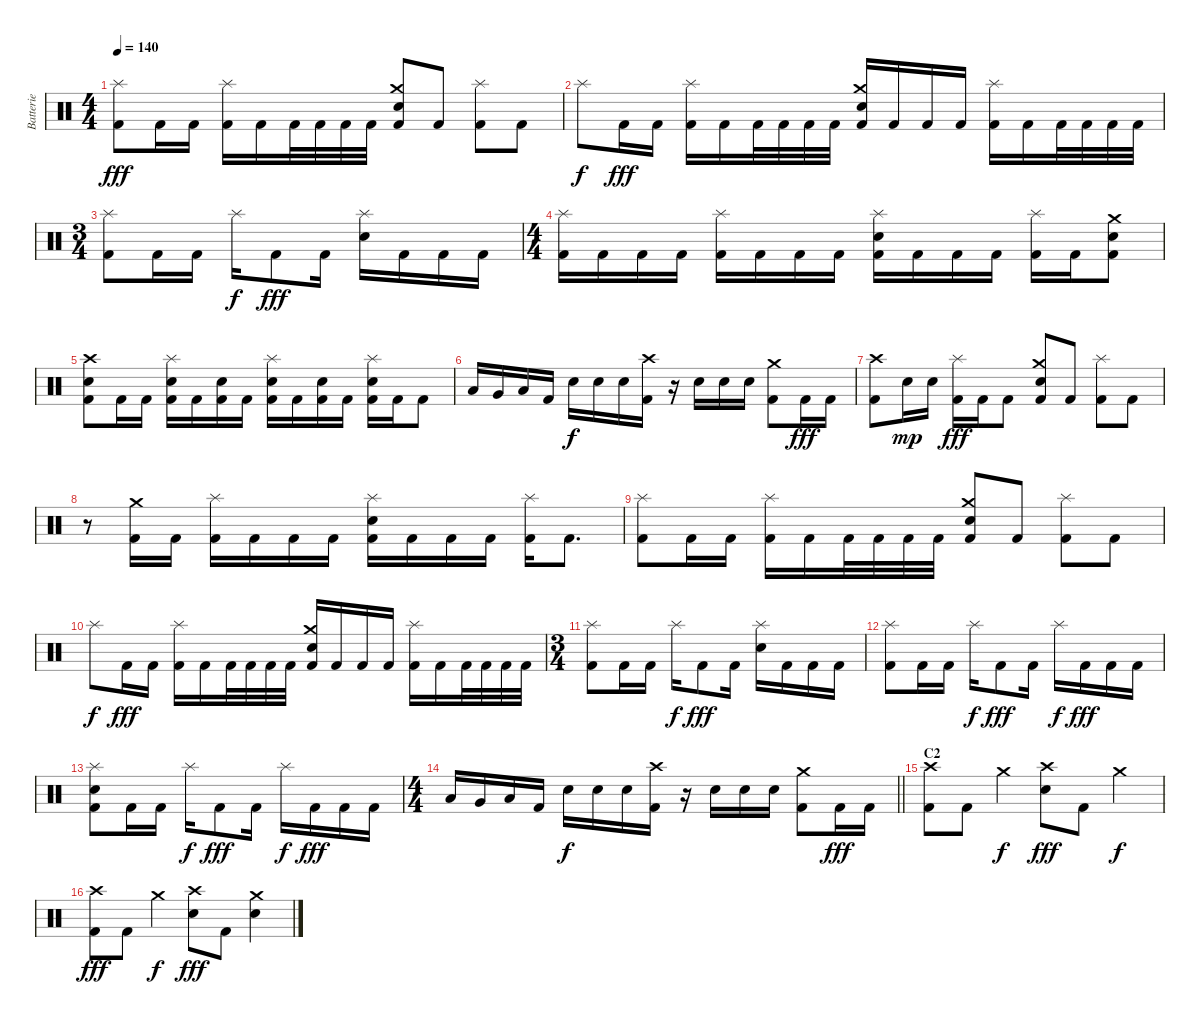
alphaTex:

\track ("Batterie" "Batterie") {instrument percussion}
\staff {score}
\articulation defaults
\ts (4 4)
\tempo 140
\clef neutral
\ks c
("Splash (hit)" "Kick (hit) 2").8{dy fff} "Kick (hit) 2".16 "Kick (hit) 2".16 ("Splash (hit)" "Kick (hit) 2").16 "Kick (hit) 2".16 "Kick (hit) 2".32 "Kick (hit) 2".32 "Kick (hit) 2".32 "Kick (hit) 2".32 ("Crash medium (hit)" "Electric Snare (hit)" "Kick (hit) 2").8 "Kick (hit) 2".8 ("Splash (hit)" "Kick (hit) 2").8 "Kick (hit) 2".8 |
"Splash (hit)".8{dy f} "Kick (hit) 2".16{dy fff} "Kick (hit) 2".16 ("Splash (hit)" "Kick (hit) 2").16 "Kick (hit) 2".16 "Kick (hit) 2".32 "Kick (hit) 2".32 "Kick (hit) 2".32 "Kick (hit) 2".32 ("Crash medium (hit)" "Electric Snare (hit)" "Kick (hit) 2").16 "Kick (hit) 2".16 "Kick (hit) 2".16 "Kick (hit) 2".16 ("Splash (hit)" "Kick (hit) 2").16 "Kick (hit) 2".16 "Kick (hit) 2".32 "Kick (hit) 2".32 "Kick (hit) 2".32 "Kick (hit) 2".32 |
\ts (3 4)
("Splash (hit)" "Kick (hit) 2").8 "Kick (hit) 2".16 "Kick (hit) 2".16 "Splash (hit)".16{dy f} "Kick (hit) 2".8{dy fff} "Kick (hit) 2".16 ("Splash (hit)" "Electric Snare (hit)").16 "Kick (hit) 2".16 "Kick (hit) 2".16 "Kick (hit) 2".16 |
\ts (4 4)
("Splash (hit)" "Kick (hit) 2").16 "Kick (hit) 2".16 "Kick (hit) 2".16 "Kick (hit) 2".16 ("Splash (hit)" "Kick (hit) 2").16 "Kick (hit) 2".16 "Kick (hit) 2".16 "Kick (hit) 2".16 ("Splash (hit)" "Electric Snare (hit)" "Kick (hit) 2").16 "Kick (hit) 2".16 "Kick (hit) 2".16 "Kick (hit) 2".16 ("Splash (hit)" "Kick (hit) 2").16 "Kick (hit) 2".16 ("Crash medium (hit)" "Electric Snare (hit)" "Kick (hit) 2").8 |
("Crash high (hit)" "Electric Snare (hit)" "Kick (hit) 2").8 "Kick (hit) 2".16 "Kick (hit) 2".16 ("Splash (hit)" "Electric Snare (hit)" "Kick (hit) 2").16 "Kick (hit) 2".16 ("Electric Snare (hit)" "Kick (hit) 2").16 "Kick (hit) 2".16 ("Splash (hit)" "Electric Snare (hit)" "Kick (hit) 2").16 "Kick (hit) 2".16 ("Electric Snare (hit)" "Kick (hit) 2").16 "Kick (hit) 2".16 ("Splash (hit)" "Electric Snare (hit)" "Kick (hit) 2").16 "Kick (hit) 2".16 "Kick (hit) 2".8 |
"Low Tom (hit)".16 "Very Low Tom (hit)".16 "Low Floor Tom (hit)".16 "Kick (hit) 2".16 "Electric Snare (hit)".16{dy f} "Electric Snare (hit)".16 "Electric Snare (hit)".16 ("Crash high (hit)" "Kick (hit) 2").16 r.16 "Electric Snare (hit)".16 "Electric Snare (hit)".16 "Electric Snare (hit)".16 ("Crash medium (hit)" "Kick (hit) 2").8 "Kick (hit) 2".16{dy fff} "Kick (hit) 2".16 |
("Crash high (hit)" "Kick (hit) 2").8 "Electric Snare (hit)".16{dy mp} "Electric Snare (hit)".16 ("Splash (hit)" "Kick (hit) 2").16{dy fff} "Kick (hit) 2".16 "Kick (hit) 2".8 ("Crash medium (hit)" "Electric Snare (hit)" "Kick (hit) 2").8 "Kick (hit) 2".8 ("Splash (hit)" "Kick (hit) 2").8 "Kick (hit) 2".8 |
r.8 ("Crash medium (hit)" "Kick (hit) 2").16 "Kick (hit) 2".16 ("Splash (hit)" "Kick (hit) 2").16 "Kick (hit) 2".16 "Kick (hit) 2".16 "Kick (hit) 2".16 ("Splash (hit)" "Electric Snare (hit)" "Kick (hit) 2").16 "Kick (hit) 2".16 "Kick (hit) 2".16 "Kick (hit) 2".16 ("Splash (hit)" "Kick (hit) 2").16 "Kick (hit) 2".8{d} |
("Splash (hit)" "Kick (hit) 2").8 "Kick (hit) 2".16 "Kick (hit) 2".16 ("Splash (hit)" "Kick (hit) 2").16 "Kick (hit) 2".16 "Kick (hit) 2".32 "Kick (hit) 2".32 "Kick (hit) 2".32 "Kick (hit) 2".32 ("Crash medium (hit)" "Electric Snare (hit)" "Kick (hit) 2").8 "Kick (hit) 2".8 ("Splash (hit)" "Kick (hit) 2").8 "Kick (hit) 2".8 |
"Splash (hit)".8{dy f} "Kick (hit) 2".16{dy fff} "Kick (hit) 2".16 ("Splash (hit)" "Kick (hit) 2").16 "Kick (hit) 2".16 "Kick (hit) 2".32 "Kick (hit) 2".32 "Kick (hit) 2".32 "Kick (hit) 2".32 ("Crash medium (hit)" "Electric Snare (hit)" "Kick (hit) 2").16 "Kick (hit) 2".16 "Kick (hit) 2".16 "Kick (hit) 2".16 ("Splash (hit)" "Kick (hit) 2").16 "Kick (hit) 2".16 "Kick (hit) 2".32 "Kick (hit) 2".32 "Kick (hit) 2".32 "Kick (hit) 2".32 |
\ts (3 4)
("Splash (hit)" "Kick (hit) 2").8 "Kick (hit) 2".16 "Kick (hit) 2".16 "Splash (hit)".16{dy f} "Kick (hit) 2".8{dy fff} "Kick (hit) 2".16 ("Splash (hit)" "Electric Snare (hit)").16 "Kick (hit) 2".16 "Kick (hit) 2".16 "Kick (hit) 2".16 |
("Splash (hit)" "Kick (hit) 2").8 "Kick (hit) 2".16 "Kick (hit) 2".16 "Splash (hit)".16{dy f} "Kick (hit) 2".8{dy fff} "Kick (hit) 2".16 "Splash (hit)".16{dy f} "Kick (hit) 2".16{dy fff} "Kick (hit) 2".16 "Kick (hit) 2".16 |
("Splash (hit)" "Electric Snare (hit)" "Kick (hit) 2").8 "Kick (hit) 2".16 "Kick (hit) 2".16 "Splash (hit)".16{dy f} "Kick (hit) 2".8{dy fff} "Kick (hit) 2".16 "Splash (hit)".16{dy f} "Kick (hit) 2".16{dy fff} "Kick (hit) 2".16 "Kick (hit) 2".16 |
\ts (4 4)
\barLineRight lightlight "Low Tom (hit)".16 "Very Low Tom (hit)".16 "Low Floor Tom (hit)".16 "Kick (hit) 2".16 "Electric Snare (hit)".16{dy f} "Electric Snare (hit)".16 "Electric Snare (hit)".16
("Crash high (hit)" "Kick (hit) 2").16 r.16 "Electric Snare (hit)".16 "Electric Snare (hit)".16 "Electric Snare (hit)".16 ("Crash medium (hit)" "Kick (hit) 2").8 "Kick (hit) 2".16{dy fff} "Kick (hit) 2".16 |
\section ("" "C2")
("Crash high (hit)" "Kick (hit) 2").8 "Kick (hit) 2".8 "Crash medium (hit)".4{dy f} ("Crash high (hit)" "Electric Snare (hit)").8{dy fff} "Kick (hit) 2".8 "Crash medium (hit)".4{dy f} |
("Crash high (hit)" "Kick (hit) 2").8{dy fff} "Kick (hit) 2".8 "Crash medium (hit)".4{dy f} ("Crash high (hit)" "Electric Snare (hit)").8{dy fff} "Kick (hit) 2".8 ("Crash medium (hit)" "Electric Snare (hit)").4
